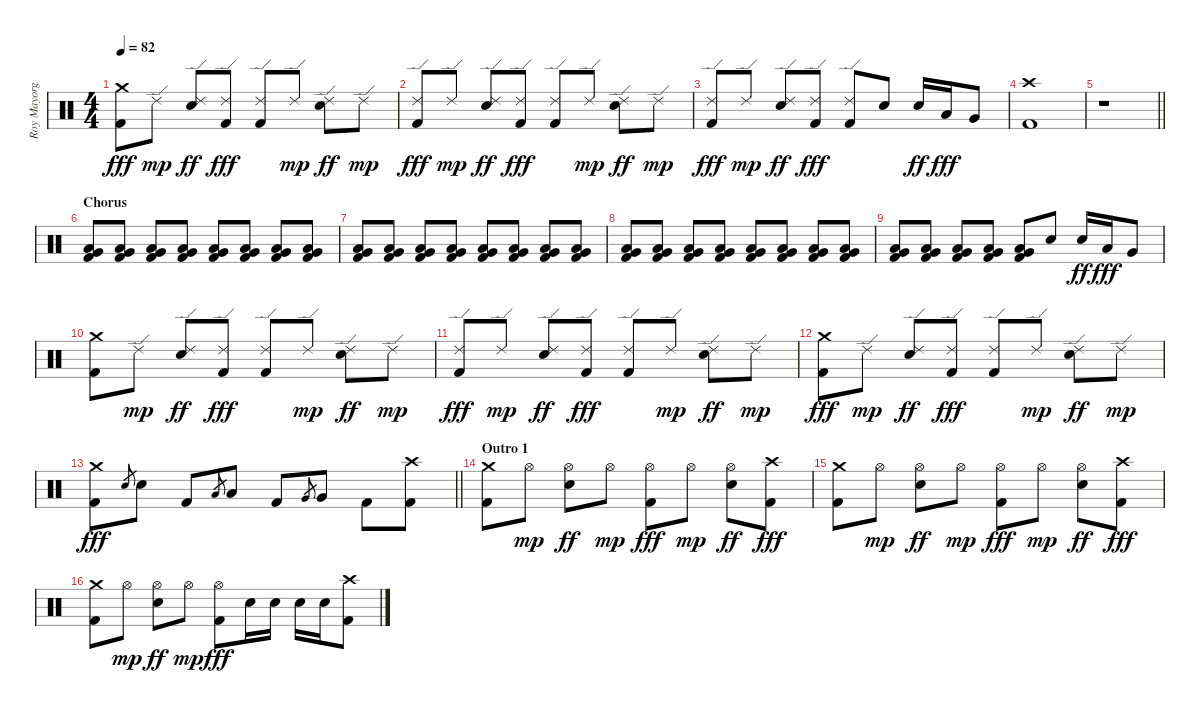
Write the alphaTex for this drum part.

\track ("Roy Mayorga" "Roy Mayorg") {instrument percussion}
\staff {score}
\articulation defaults
\ts (4 4)
\tempo 82
\clef neutral
\ks c
("Crash medium (hit)" "Kick (hit) 2").8{dy fff} "Ride (edge) 2".8{dy mp} ("Ride (edge) 2" "Electric Snare (hit)").8{dy ff} ("Ride (edge) 2" "Kick (hit) 2").8{dy fff} ("Ride (edge) 2" "Kick (hit) 2").8 "Ride (edge) 2".8{dy mp} ("Ride (edge) 2" "Electric Snare (hit)").8{dy ff} "Ride (edge) 2".8{dy mp} |
("Ride (edge) 2" "Kick (hit) 2").8{dy fff} "Ride (edge) 2".8{dy mp} ("Ride (edge) 2" "Electric Snare (hit)").8{dy ff} ("Ride (edge) 2" "Kick (hit) 2").8{dy fff} ("Ride (edge) 2" "Kick (hit) 2").8 "Ride (edge) 2".8{dy mp} ("Ride (edge) 2" "Electric Snare (hit)").8{dy ff} "Ride (edge) 2".8{dy mp} |
("Ride (edge) 2" "Kick (hit) 2").8{dy fff} "Ride (edge) 2".8{dy mp} ("Ride (edge) 2" "Electric Snare (hit)").8{dy ff} ("Ride (edge) 2" "Kick (hit) 2").8{dy fff} ("Ride (edge) 2" "Kick (hit) 2").8 "Electric Snare (hit)".8 "Electric Snare (hit)".16{dy ff} "Low Tom (hit)".16{dy fff} "Very Low Tom (hit)".8 |
("Crash high (hit)" "Kick (hit) 2").1 |
\barLineRight lightlight
r.1{volume 7} |
\section ("" "Chorus")
("Very Low Tom (hit)" "Low Floor Tom (hit)" "Kick (hit) 2").8{volume 13} ("Very Low Tom (hit)" "Low Floor Tom (hit)" "Kick (hit) 2").8 ("Very Low Tom (hit)" "Low Floor Tom (hit)" "Kick (hit) 2").8 ("Very Low Tom (hit)" "Low Floor Tom (hit)" "Kick (hit) 2").8 ("Very Low Tom (hit)" "Low Floor Tom (hit)" "Kick (hit) 2").8 ("Very Low Tom (hit)" "Low Floor Tom (hit)" "Kick (hit) 2").8 ("Very Low Tom (hit)" "Low Floor Tom (hit)" "Kick (hit) 2").8 ("Very Low Tom (hit)" "Low Floor Tom (hit)" "Kick (hit) 2").8 |
("Very Low Tom (hit)" "Low Floor Tom (hit)" "Kick (hit) 2").8 ("Very Low Tom (hit)" "Low Floor Tom (hit)" "Kick (hit) 2").8 ("Very Low Tom (hit)" "Low Floor Tom (hit)" "Kick (hit) 2").8 ("Very Low Tom (hit)" "Low Floor Tom (hit)" "Kick (hit) 2").8 ("Very Low Tom (hit)" "Low Floor Tom (hit)" "Kick (hit) 2").8 ("Very Low Tom (hit)" "Low Floor Tom (hit)" "Kick (hit) 2").8 ("Very Low Tom (hit)" "Low Floor Tom (hit)" "Kick (hit) 2").8 ("Very Low Tom (hit)" "Low Floor Tom (hit)" "Kick (hit) 2").8 |
("Very Low Tom (hit)" "Low Floor Tom (hit)" "Kick (hit) 2").8 ("Very Low Tom (hit)" "Low Floor Tom (hit)" "Kick (hit) 2").8 ("Very Low Tom (hit)" "Low Floor Tom (hit)" "Kick (hit) 2").8 ("Very Low Tom (hit)" "Low Floor Tom (hit)" "Kick (hit) 2").8 ("Very Low Tom (hit)" "Low Floor Tom (hit)" "Kick (hit) 2").8 ("Very Low Tom (hit)" "Low Floor Tom (hit)" "Kick (hit) 2").8 ("Very Low Tom (hit)" "Low Floor Tom (hit)" "Kick (hit) 2").8 ("Very Low Tom (hit)" "Low Floor Tom (hit)" "Kick (hit) 2").8 |
("Very Low Tom (hit)" "Low Floor Tom (hit)" "Kick (hit) 2").8 ("Very Low Tom (hit)" "Low Floor Tom (hit)" "Kick (hit) 2").8 ("Very Low Tom (hit)" "Low Floor Tom (hit)" "Kick (hit) 2").8 ("Very Low Tom (hit)" "Low Floor Tom (hit)" "Kick (hit) 2").8 ("Very Low Tom (hit)" "Low Floor Tom (hit)" "Kick (hit) 2").8 "Electric Snare (hit)".8 "Electric Snare (hit)".16{dy ff} "Low Tom (hit)".16{dy fff} "Very Low Tom (hit)".8 |
("Crash medium (hit)" "Kick (hit) 2").8 "Ride (edge) 2".8{dy mp} ("Ride (edge) 2" "Electric Snare (hit)").8{dy ff} ("Ride (edge) 2" "Kick (hit) 2").8{dy fff} ("Ride (edge) 2" "Kick (hit) 2").8 "Ride (edge) 2".8{dy mp} ("Ride (edge) 2" "Electric Snare (hit)").8{dy ff} "Ride (edge) 2".8{dy mp} |
("Ride (edge) 2" "Kick (hit) 2").8{dy fff} "Ride (edge) 2".8{dy mp} ("Ride (edge) 2" "Electric Snare (hit)").8{dy ff} ("Ride (edge) 2" "Kick (hit) 2").8{dy fff} ("Ride (edge) 2" "Kick (hit) 2").8 "Ride (edge) 2".8{dy mp} ("Ride (edge) 2" "Electric Snare (hit)").8{dy ff} "Ride (edge) 2".8{dy mp} |
("Crash medium (hit)" "Kick (hit) 2").8{dy fff} "Ride (edge) 2".8{dy mp} ("Ride (edge) 2" "Electric Snare (hit)").8{dy ff} ("Ride (edge) 2" "Kick (hit) 2").8{dy fff} ("Ride (edge) 2" "Kick (hit) 2").8 "Ride (edge) 2".8{dy mp} ("Ride (edge) 2" "Electric Snare (hit)").8{dy ff} "Ride (edge) 2".8{dy mp} |
\barLineRight lightlight
("Crash medium (hit)" "Kick (hit) 2").8{dy fff} "Electric Snare (hit)".8{gr} "Electric Snare (hit)".8 "Kick (hit) 2".8 "Low Tom (hit)".8{gr} "Low Tom (hit)".8 "Kick (hit) 2".8 "Very Low Tom (hit)".8{gr} "Very Low Tom (hit)".8 "Kick (hit) 2".8 ("Crash high (hit)" "Kick (hit) 2").8 |
\section ("" "Outro 1")
("Crash medium (hit)" "Kick (hit) 2").8 "Hi-Hat (open)".8{dy mp} ("Hi-Hat (open)" "Electric Snare (hit)").8{dy ff} "Hi-Hat (open)".8{dy mp} ("Hi-Hat (open)" "Kick (hit) 2").8{dy fff} "Hi-Hat (open)".8{dy mp} ("Hi-Hat (open)" "Electric Snare (hit)").8{dy ff} ("Crash high (hit)" "Kick (hit) 2").8{dy fff} |
("Crash medium (hit)" "Kick (hit) 2").8 "Hi-Hat (open)".8{dy mp} ("Hi-Hat (open)" "Electric Snare (hit)").8{dy ff} "Hi-Hat (open)".8{dy mp} ("Hi-Hat (open)" "Kick (hit) 2").8{dy fff} "Hi-Hat (open)".8{dy mp} ("Hi-Hat (open)" "Electric Snare (hit)").8{dy ff} ("Crash high (hit)" "Kick (hit) 2").8{dy fff} |
("Crash medium (hit)" "Kick (hit) 2").8 "Hi-Hat (open)".8{dy mp} ("Hi-Hat (open)" "Electric Snare (hit)").8{dy ff} "Hi-Hat (open)".8{dy mp} ("Hi-Hat (open)" "Kick (hit) 2").8{dy fff} "Electric Snare (hit)".16 "Electric Snare (hit)".16 "Electric Snare (hit)".16 "Electric Snare (hit)".16 ("Crash high (hit)" "Kick (hit) 2").8
